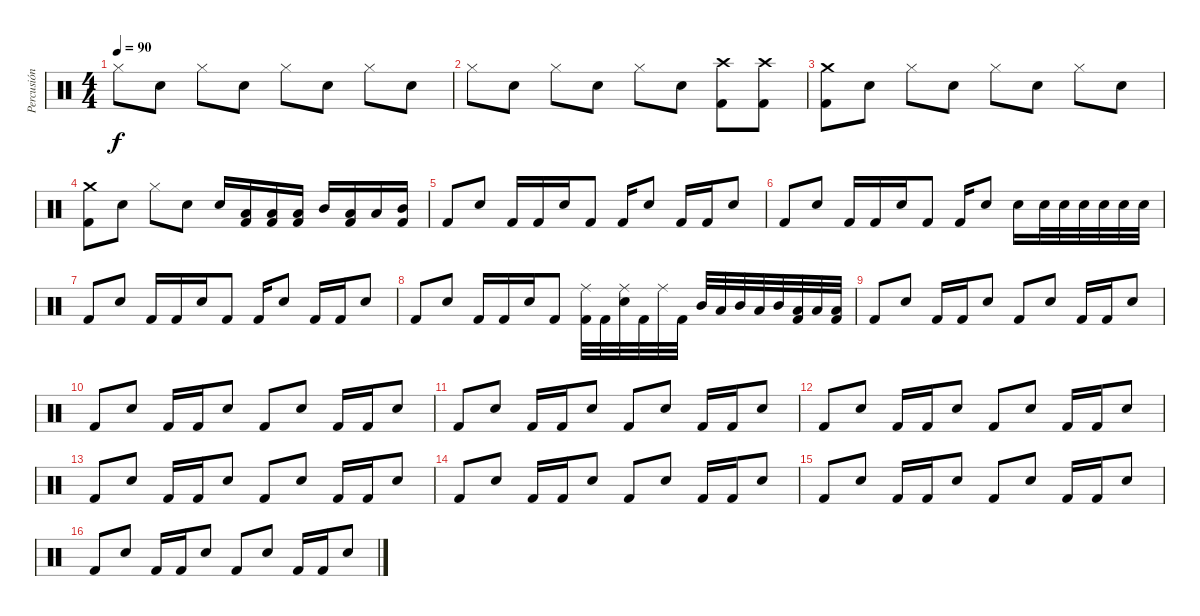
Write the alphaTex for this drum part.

\track ("Percusión" "Percusión") {instrument percussion}
\staff {score}
\articulation defaults
\ts (4 4)
\tempo 90
\clef neutral
\ks c "Hi-Hat (closed)".8{dy f} "Snare (hit) 2".8 "Hi-Hat (closed)".8 "Snare (hit) 2".8 "Hi-Hat (closed)".8 "Snare (hit) 2".8 "Hi-Hat (closed)".8 "Snare (hit) 2".8
|
"Hi-Hat (closed)".8 "Snare (hit) 2".8 "Hi-Hat (closed)".8 "Snare (hit) 2".8 "Hi-Hat (closed)".8 "Snare (hit) 2".8 ("Crash high (hit)" "Kick (hit) 2").8 ("Crash high (hit)" "Kick (hit) 2").8 |
("Crash medium (hit)" "Kick (hit) 2").8 "Snare (hit) 2".8 "Hi-Hat (closed)".8 "Snare (hit) 2".8 "Hi-Hat (closed)".8 "Snare (hit) 2".8 "Hi-Hat (closed)".8 "Snare (hit) 2".8 |
("Crash medium (hit)" "Kick (hit) 2").8 "Snare (hit) 2".8 "Hi-Hat (closed)".8 "Snare (hit) 2".8 "Snare (hit) 2".16 ("Low Tom (hit)" "Kick (hit) 2").16 ("Low Floor Tom (hit)" "Kick (hit) 2").16 ("Low Tom (hit)" "Kick (hit) 2").16 "Mid Tom (hit)".16 ("Low Floor Tom (hit)" "Kick (hit) 2").16 "Low Tom (hit)".16 ("Mid Tom (hit)" "Kick (hit) 2").16 |
"Kick (hit) 2".8 "Snare (hit) 2".8 "Kick (hit) 2".16 "Kick (hit) 2".16 "Snare (hit) 2".16 "Kick (hit) 2".8 "Kick (hit) 2".16 "Snare (hit) 2".8 "Kick (hit) 2".16 "Kick (hit) 2".16 "Snare (hit) 2".8 |
"Kick (hit) 2".8 "Snare (hit) 2".8 "Kick (hit) 2".16 "Kick (hit) 2".16 "Snare (hit) 2".16 "Kick (hit) 2".8 "Kick (hit) 2".16 "Snare (hit) 2".8 "Snare (hit) 2".16 "Snare (hit) 2".32 "Snare (hit) 2".32 "Snare (hit) 2".32 "Snare (hit) 2".32 "Snare (hit) 2".32 "Snare (hit) 2".32 |
"Kick (hit) 2".8 "Snare (hit) 2".8 "Kick (hit) 2".16 "Kick (hit) 2".16 "Snare (hit) 2".16 "Kick (hit) 2".8 "Kick (hit) 2".16 "Snare (hit) 2".8 "Kick (hit) 2".16 "Kick (hit) 2".16 "Snare (hit) 2".8 |
"Kick (hit) 2".8 "Snare (hit) 2".8 "Kick (hit) 2".16 "Kick (hit) 2".16 "Snare (hit) 2".16 "Kick (hit) 2".8 ("Ride (middle)" "Kick (hit) 2").32 "Kick (hit) 2".32 ("Ride (middle)" "Snare (hit) 2").32 "Kick (hit) 2".32 "Ride (middle)".32 "Kick (hit) 2".32 "Mid Tom (hit)".32 "Low Tom (hit)".32 "Mid Tom (hit)".32 "Low Tom (hit)".32 "Mid Tom (hit)".32 ("Low Floor Tom (hit)" "Kick (hit) 2").32 "Low Tom (hit)".32 ("Low Floor Tom (hit)" "Kick (hit) 2").32 |
"Kick (hit) 2".8 "Snare (hit) 2".8 "Kick (hit) 2".16 "Kick (hit) 2".16 "Snare (hit) 2".8 "Kick (hit) 2".8 "Snare (hit) 2".8 "Kick (hit) 2".16 "Kick (hit) 2".16 "Snare (hit) 2".8 |
"Kick (hit) 2".8 "Snare (hit) 2".8 "Kick (hit) 2".16 "Kick (hit) 2".16 "Snare (hit) 2".8 "Kick (hit) 2".8 "Snare (hit) 2".8 "Kick (hit) 2".16 "Kick (hit) 2".16 "Snare (hit) 2".8 |
"Kick (hit) 2".8 "Snare (hit) 2".8 "Kick (hit) 2".16 "Kick (hit) 2".16 "Snare (hit) 2".8 "Kick (hit) 2".8 "Snare (hit) 2".8 "Kick (hit) 2".16 "Kick (hit) 2".16 "Snare (hit) 2".8 |
"Kick (hit) 2".8 "Snare (hit) 2".8 "Kick (hit) 2".16 "Kick (hit) 2".16 "Snare (hit) 2".8 "Kick (hit) 2".8 "Snare (hit) 2".8 "Kick (hit) 2".16 "Kick (hit) 2".16 "Snare (hit) 2".8 |
"Kick (hit) 2".8 "Snare (hit) 2".8 "Kick (hit) 2".16 "Kick (hit) 2".16 "Snare (hit) 2".8 "Kick (hit) 2".8 "Snare (hit) 2".8 "Kick (hit) 2".16 "Kick (hit) 2".16 "Snare (hit) 2".8 |
"Kick (hit) 2".8 "Snare (hit) 2".8 "Kick (hit) 2".16 "Kick (hit) 2".16 "Snare (hit) 2".8 "Kick (hit) 2".8 "Snare (hit) 2".8 "Kick (hit) 2".16 "Kick (hit) 2".16 "Snare (hit) 2".8 |
"Kick (hit) 2".8 "Snare (hit) 2".8 "Kick (hit) 2".16 "Kick (hit) 2".16 "Snare (hit) 2".8 "Kick (hit) 2".8 "Snare (hit) 2".8 "Kick (hit) 2".16 "Kick (hit) 2".16 "Snare (hit) 2".8 |
"Kick (hit) 2".8 "Snare (hit) 2".8 "Kick (hit) 2".16 "Kick (hit) 2".16 "Snare (hit) 2".8 "Kick (hit) 2".8 "Snare (hit) 2".8 "Kick (hit) 2".16 "Kick (hit) 2".16 "Snare (hit) 2".8
